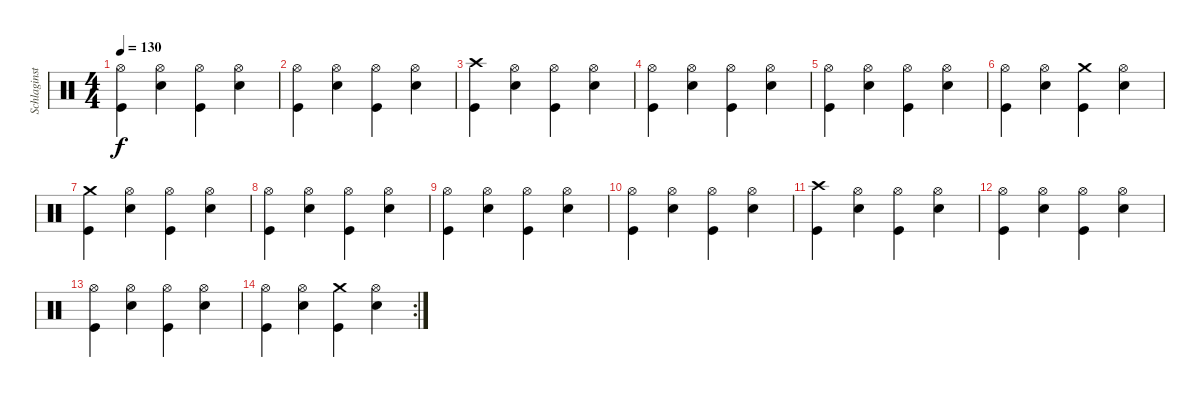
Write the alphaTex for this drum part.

\track ("Schlaginstrumente - Auswahl" "Schlaginst") {instrument percussion}
\staff {score}
\articulation defaults
\ts (4 4)
\tempo 130
\clef neutral
\ks c
("Hi-Hat (open)" "Kick (hit)").4{dy f} ("Hi-Hat (open)" "Snare (hit) 2").4 ("Hi-Hat (open)" "Kick (hit)").4 ("Hi-Hat (open)" "Snare (hit) 2").4 |
("Hi-Hat (open)" "Kick (hit)").4 ("Hi-Hat (open)" "Snare (hit) 2").4 ("Hi-Hat (open)" "Kick (hit)").4 ("Hi-Hat (open)" "Snare (hit) 2").4 |
("Crash high (hit)" "Kick (hit)").4 ("Hi-Hat (open)" "Snare (hit) 2").4 ("Hi-Hat (open)" "Kick (hit)").4 ("Hi-Hat (open)" "Snare (hit) 2").4 |
("Hi-Hat (open)" "Kick (hit)").4 ("Hi-Hat (open)" "Snare (hit) 2").4 ("Hi-Hat (open)" "Kick (hit)").4 ("Hi-Hat (open)" "Snare (hit) 2").4 |
("Hi-Hat (open)" "Kick (hit)").4 ("Hi-Hat (open)" "Snare (hit) 2").4 ("Hi-Hat (open)" "Kick (hit)").4 ("Hi-Hat (open)" "Snare (hit) 2").4 |
("Hi-Hat (open)" "Kick (hit)").4 ("Hi-Hat (open)" "Snare (hit) 2").4 ("Crash medium (hit)" "Kick (hit)").4 ("Hi-Hat (open)" "Snare (hit) 2").4 |
("Crash medium (hit)" "Kick (hit)").4 ("Hi-Hat (open)" "Snare (hit) 2").4 ("Hi-Hat (open)" "Kick (hit)").4 ("Hi-Hat (open)" "Snare (hit) 2").4 |
("Hi-Hat (open)" "Kick (hit)").4 ("Hi-Hat (open)" "Snare (hit) 2").4 ("Hi-Hat (open)" "Kick (hit)").4 ("Hi-Hat (open)" "Snare (hit) 2").4 |
("Hi-Hat (open)" "Kick (hit)").4 ("Hi-Hat (open)" "Snare (hit) 2").4 ("Hi-Hat (open)" "Kick (hit)").4 ("Hi-Hat (open)" "Snare (hit) 2").4 |
("Hi-Hat (open)" "Kick (hit)").4 ("Hi-Hat (open)" "Snare (hit) 2").4 ("Hi-Hat (open)" "Kick (hit)").4 ("Hi-Hat (open)" "Snare (hit) 2").4 |
("Crash high (hit)" "Kick (hit)").4 ("Hi-Hat (open)" "Snare (hit) 2").4 ("Hi-Hat (open)" "Kick (hit)").4 ("Hi-Hat (open)" "Snare (hit) 2").4 |
("Hi-Hat (open)" "Kick (hit)").4 ("Hi-Hat (open)" "Snare (hit) 2").4 ("Hi-Hat (open)" "Kick (hit)").4 ("Hi-Hat (open)" "Snare (hit) 2").4 |
("Hi-Hat (open)" "Kick (hit)").4 ("Hi-Hat (open)" "Snare (hit) 2").4 ("Hi-Hat (open)" "Kick (hit)").4 ("Hi-Hat (open)" "Snare (hit) 2").4 |
\rc 2
("Hi-Hat (open)" "Kick (hit)").4 ("Hi-Hat (open)" "Snare (hit) 2").4 ("Crash medium (hit)" "Kick (hit)").4 ("Hi-Hat (open)" "Snare (hit) 2").4
